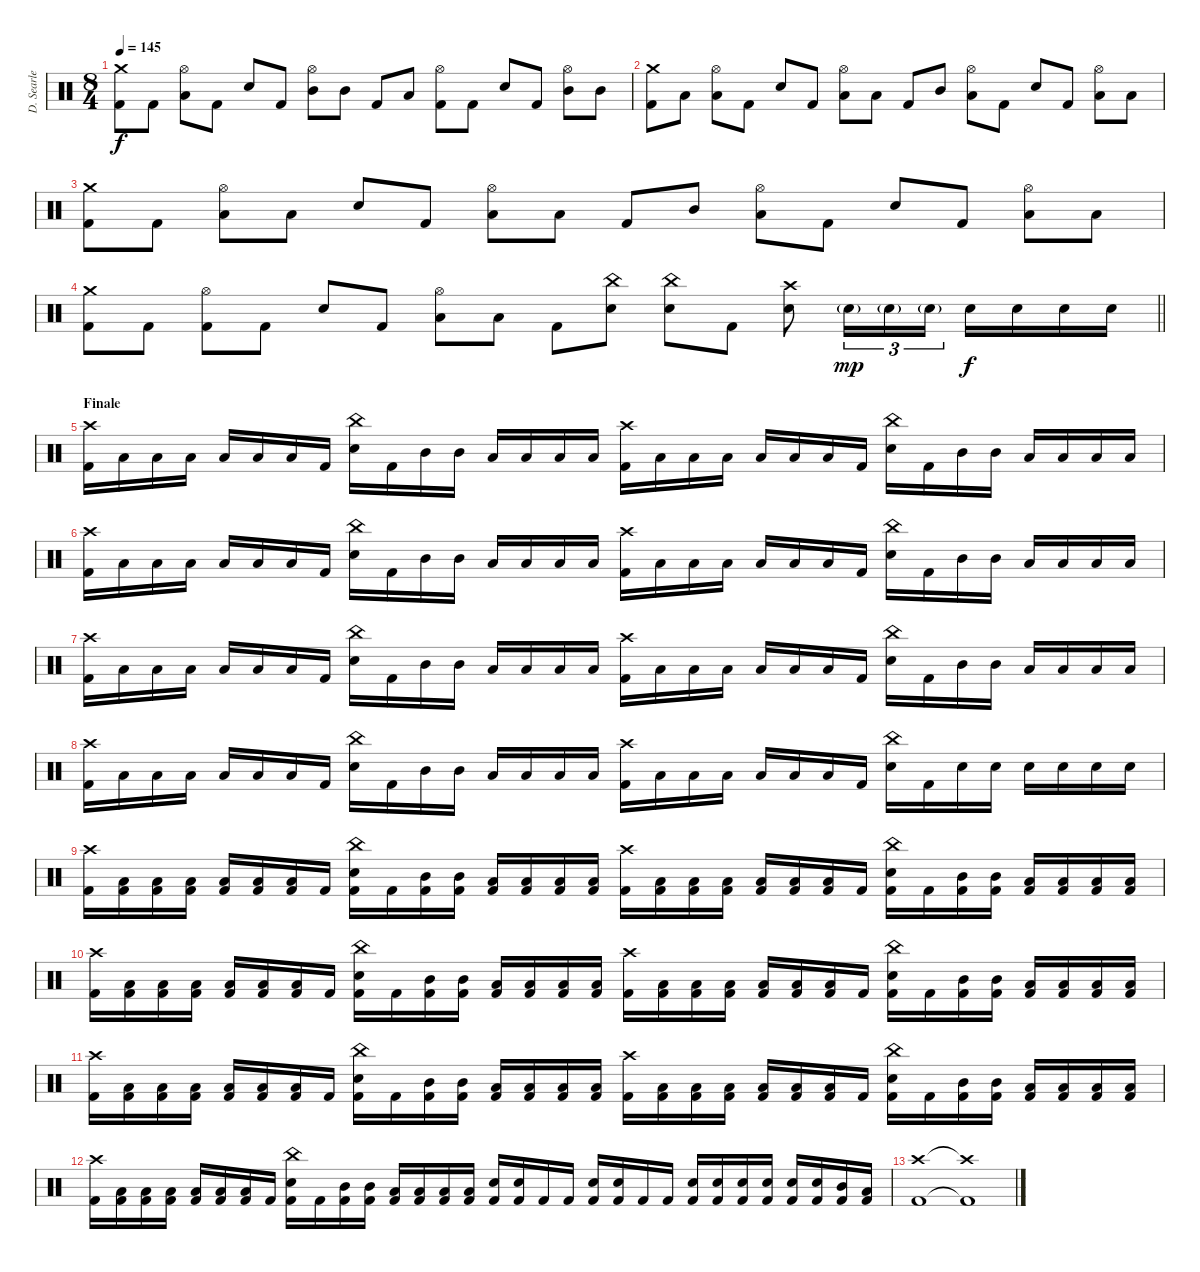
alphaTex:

\track ("D. Searle" "D. Searle") {instrument percussion}
\staff {score}
\articulation defaults
\ts (8 4)
\tempo 145
\clef neutral
\ks c
("Crash medium (hit)" "Kick (hit) 2").8{dy f} "Kick (hit) 2".8 ("Hi-Hat (open)" "Low Tom (hit)").8 "Kick (hit) 2".8 "Electric Snare (hit)".8 "Kick (hit) 2".8 ("Hi-Hat (open)" "Mid Tom (hit)").8 "Mid Tom (hit)".8 "Kick (hit) 2".8 "Low Tom (hit)".8 ("Hi-Hat (open)" "Kick (hit) 2").8 "Kick (hit) 2".8 "Electric Snare (hit)".8 "Kick (hit) 2".8 ("Hi-Hat (open)" "Mid Tom (hit)").8 "Mid Tom (hit)".8 |
("Crash medium (hit)" "Kick (hit) 2").8 "Low Tom (hit)".8 ("Hi-Hat (open)" "Low Tom (hit)").8 "Kick (hit) 2".8 "Electric Snare (hit)".8 "Kick (hit) 2".8 ("Hi-Hat (open)" "Low Tom (hit)").8 "Low Tom (hit)".8 "Kick (hit) 2".8 "Mid Tom (hit)".8 ("Hi-Hat (open)" "Low Tom (hit)").8 "Kick (hit) 2".8 "Electric Snare (hit)".8 "Kick (hit) 2".8 ("Hi-Hat (open)" "Low Tom (hit)").8 "Low Tom (hit)".8 |
("Crash medium (hit)" "Kick (hit) 2").8 "Kick (hit) 2".8 ("Hi-Hat (open)" "Low Tom (hit)").8 "Low Tom (hit)".8 "Electric Snare (hit)".8 "Kick (hit) 2".8 ("Hi-Hat (open)" "Low Tom (hit)").8 "Low Tom (hit)".8 "Kick (hit) 2".8 "Mid Tom (hit)".8 ("Hi-Hat (open)" "Low Tom (hit)").8 "Kick (hit) 2".8 "Electric Snare (hit)".8 "Kick (hit) 2".8 ("Hi-Hat (open)" "Low Tom (hit)").8 "Low Tom (hit)".8 |
\barLineRight lightlight
("Crash medium (hit)" "Kick (hit) 2").8 "Kick (hit) 2".8 ("Hi-Hat (open)" "Kick (hit) 2").8 "Kick (hit) 2".8 "Electric Snare (hit)".8 "Kick (hit) 2".8 ("Hi-Hat (open)" "Low Tom (hit)").8 "Low Tom (hit)".8 "Kick (hit) 2".8 ("China (hit)" "Electric Snare (hit)").8 ("China (hit)" "Electric Snare (hit)").8 "Kick (hit) 2".8 ("Crash high (hit)" "Electric Snare (hit)").8 "Electric Snare (hit)"{g}.16{tu (3 2) dy mp} "Electric Snare (hit)"{g}.16{tu (3 2)} "Electric Snare (hit)"{g}.16{tu (3 2)} "Electric Snare (hit)".16{dy f} "Electric Snare (hit)".16 "Electric Snare (hit)".16 "Electric Snare (hit)".16 |
\section ("" "Finale")
("Crash high (hit)" "Kick (hit) 2").16 "Low Tom (hit)".16 "Low Tom (hit)".16 "Low Tom (hit)".16 "Low Tom (hit)".16 "Low Tom (hit)".16 "Low Tom (hit)".16 "Kick (hit) 2".16 ("China (hit)" "Electric Snare (hit)").16 "Kick (hit) 2".16 "Mid Tom (hit)".16 "Mid Tom (hit)".16 "Low Tom (hit)".16 "Low Tom (hit)".16 "Low Tom (hit)".16 "Low Tom (hit)".16 ("Crash high (hit)" "Kick (hit) 2").16 "Low Tom (hit)".16 "Low Tom (hit)".16 "Low Tom (hit)".16 "Low Tom (hit)".16 "Low Tom (hit)".16 "Low Tom (hit)".16 "Kick (hit) 2".16 ("China (hit)" "Electric Snare (hit)").16 "Kick (hit) 2".16 "Mid Tom (hit)".16 "Mid Tom (hit)".16 "Low Tom (hit)".16 "Low Tom (hit)".16 "Low Tom (hit)".16 "Low Tom (hit)".16 |
("Crash high (hit)" "Kick (hit) 2").16 "Low Tom (hit)".16 "Low Tom (hit)".16 "Low Tom (hit)".16 "Low Tom (hit)".16 "Low Tom (hit)".16 "Low Tom (hit)".16 "Kick (hit) 2".16 ("China (hit)" "Electric Snare (hit)").16 "Kick (hit) 2".16 "Mid Tom (hit)".16 "Mid Tom (hit)".16 "Low Tom (hit)".16 "Low Tom (hit)".16 "Low Tom (hit)".16 "Low Tom (hit)".16 ("Crash high (hit)" "Kick (hit) 2").16 "Low Tom (hit)".16 "Low Tom (hit)".16 "Low Tom (hit)".16 "Low Tom (hit)".16 "Low Tom (hit)".16 "Low Tom (hit)".16 "Kick (hit) 2".16 ("China (hit)" "Electric Snare (hit)").16 "Kick (hit) 2".16 "Mid Tom (hit)".16 "Mid Tom (hit)".16 "Low Tom (hit)".16 "Low Tom (hit)".16 "Low Tom (hit)".16 "Low Tom (hit)".16 |
("Crash high (hit)" "Kick (hit) 2").16 "Low Tom (hit)".16 "Low Tom (hit)".16 "Low Tom (hit)".16 "Low Tom (hit)".16 "Low Tom (hit)".16 "Low Tom (hit)".16 "Kick (hit) 2".16 ("China (hit)" "Electric Snare (hit)").16 "Kick (hit) 2".16 "Mid Tom (hit)".16 "Mid Tom (hit)".16 "Low Tom (hit)".16 "Low Tom (hit)".16 "Low Tom (hit)".16 "Low Tom (hit)".16 ("Crash high (hit)" "Kick (hit) 2").16 "Low Tom (hit)".16 "Low Tom (hit)".16 "Low Tom (hit)".16 "Low Tom (hit)".16 "Low Tom (hit)".16 "Low Tom (hit)".16 "Kick (hit) 2".16 ("China (hit)" "Electric Snare (hit)").16 "Kick (hit) 2".16 "Mid Tom (hit)".16 "Mid Tom (hit)".16 "Low Tom (hit)".16 "Low Tom (hit)".16 "Low Tom (hit)".16 "Low Tom (hit)".16 |
("Crash high (hit)" "Kick (hit) 2").16 "Low Tom (hit)".16 "Low Tom (hit)".16 "Low Tom (hit)".16 "Low Tom (hit)".16 "Low Tom (hit)".16 "Low Tom (hit)".16 "Kick (hit) 2".16 ("China (hit)" "Electric Snare (hit)").16 "Kick (hit) 2".16 "Mid Tom (hit)".16 "Mid Tom (hit)".16 "Low Tom (hit)".16 "Low Tom (hit)".16 "Low Tom (hit)".16 "Low Tom (hit)".16 ("Crash high (hit)" "Kick (hit) 2").16 "Low Tom (hit)".16 "Low Tom (hit)".16 "Low Tom (hit)".16 "Low Tom (hit)".16 "Low Tom (hit)".16 "Low Tom (hit)".16 "Kick (hit) 2".16 ("China (hit)" "Electric Snare (hit)").16 "Kick (hit) 2".16 "Electric Snare (hit)".16 "Electric Snare (hit)".16 "Electric Snare (hit)".16 "Electric Snare (hit)".16 "Electric Snare (hit)".16 "Electric Snare (hit)".16 |
("Crash high (hit)" "Kick (hit) 2").16 ("Low Tom (hit)" "Kick (hit) 2").16 ("Low Tom (hit)" "Kick (hit) 2").16 ("Low Tom (hit)" "Kick (hit) 2").16 ("Low Tom (hit)" "Kick (hit) 2").16 ("Low Tom (hit)" "Kick (hit) 2").16 ("Low Tom (hit)" "Kick (hit) 2").16 "Kick (hit) 2".16 ("China (hit)" "Electric Snare (hit)" "Kick (hit) 2").16 "Kick (hit) 2".16 ("Mid Tom (hit)" "Kick (hit) 2").16 ("Mid Tom (hit)" "Kick (hit) 2").16 ("Low Tom (hit)" "Kick (hit) 2").16 ("Low Tom (hit)" "Kick (hit) 2").16 ("Low Tom (hit)" "Kick (hit) 2").16 ("Low Tom (hit)" "Kick (hit) 2").16 ("Crash high (hit)" "Kick (hit) 2").16 ("Low Tom (hit)" "Kick (hit) 2").16 ("Low Tom (hit)" "Kick (hit) 2").16 ("Low Tom (hit)" "Kick (hit) 2").16 ("Low Tom (hit)" "Kick (hit) 2").16 ("Low Tom (hit)" "Kick (hit) 2").16 ("Low Tom (hit)" "Kick (hit) 2").16 "Kick (hit) 2".16 ("China (hit)" "Electric Snare (hit)" "Kick (hit) 2").16 "Kick (hit) 2".16 ("Mid Tom (hit)" "Kick (hit) 2").16 ("Mid Tom (hit)" "Kick (hit) 2").16 ("Low Tom (hit)" "Kick (hit) 2").16 ("Low Tom (hit)" "Kick (hit) 2").16 ("Low Tom (hit)" "Kick (hit) 2").16 ("Low Tom (hit)" "Kick (hit) 2").16 |
("Crash high (hit)" "Kick (hit) 2").16 ("Low Tom (hit)" "Kick (hit) 2").16 ("Low Tom (hit)" "Kick (hit) 2").16 ("Low Tom (hit)" "Kick (hit) 2").16 ("Low Tom (hit)" "Kick (hit) 2").16 ("Low Tom (hit)" "Kick (hit) 2").16 ("Low Tom (hit)" "Kick (hit) 2").16 "Kick (hit) 2".16 ("China (hit)" "Electric Snare (hit)" "Kick (hit) 2").16 "Kick (hit) 2".16 ("Mid Tom (hit)" "Kick (hit) 2").16 ("Mid Tom (hit)" "Kick (hit) 2").16 ("Low Tom (hit)" "Kick (hit) 2").16 ("Low Tom (hit)" "Kick (hit) 2").16 ("Low Tom (hit)" "Kick (hit) 2").16 ("Low Tom (hit)" "Kick (hit) 2").16 ("Crash high (hit)" "Kick (hit) 2").16 ("Low Tom (hit)" "Kick (hit) 2").16 ("Low Tom (hit)" "Kick (hit) 2").16 ("Low Tom (hit)" "Kick (hit) 2").16 ("Low Tom (hit)" "Kick (hit) 2").16 ("Low Tom (hit)" "Kick (hit) 2").16 ("Low Tom (hit)" "Kick (hit) 2").16 "Kick (hit) 2".16 ("China (hit)" "Electric Snare (hit)" "Kick (hit) 2").16 "Kick (hit) 2".16 ("Mid Tom (hit)" "Kick (hit) 2").16 ("Mid Tom (hit)" "Kick (hit) 2").16 ("Low Tom (hit)" "Kick (hit) 2").16 ("Low Tom (hit)" "Kick (hit) 2").16 ("Low Tom (hit)" "Kick (hit) 2").16 ("Low Tom (hit)" "Kick (hit) 2").16 |
("Crash high (hit)" "Kick (hit) 2").16 ("Low Tom (hit)" "Kick (hit) 2").16 ("Low Tom (hit)" "Kick (hit) 2").16 ("Low Tom (hit)" "Kick (hit) 2").16 ("Low Tom (hit)" "Kick (hit) 2").16 ("Low Tom (hit)" "Kick (hit) 2").16 ("Low Tom (hit)" "Kick (hit) 2").16 "Kick (hit) 2".16 ("China (hit)" "Electric Snare (hit)" "Kick (hit) 2").16 "Kick (hit) 2".16 ("Mid Tom (hit)" "Kick (hit) 2").16 ("Mid Tom (hit)" "Kick (hit) 2").16 ("Low Tom (hit)" "Kick (hit) 2").16 ("Low Tom (hit)" "Kick (hit) 2").16 ("Low Tom (hit)" "Kick (hit) 2").16 ("Low Tom (hit)" "Kick (hit) 2").16 ("Crash high (hit)" "Kick (hit) 2").16 ("Low Tom (hit)" "Kick (hit) 2").16 ("Low Tom (hit)" "Kick (hit) 2").16 ("Low Tom (hit)" "Kick (hit) 2").16 ("Low Tom (hit)" "Kick (hit) 2").16 ("Low Tom (hit)" "Kick (hit) 2").16 ("Low Tom (hit)" "Kick (hit) 2").16 "Kick (hit) 2".16 ("China (hit)" "Electric Snare (hit)" "Kick (hit) 2").16 "Kick (hit) 2".16 ("Mid Tom (hit)" "Kick (hit) 2").16 ("Mid Tom (hit)" "Kick (hit) 2").16 ("Low Tom (hit)" "Kick (hit) 2").16 ("Low Tom (hit)" "Kick (hit) 2").16 ("Low Tom (hit)" "Kick (hit) 2").16 ("Low Tom (hit)" "Kick (hit) 2").16 |
("Crash high (hit)" "Kick (hit) 2").16 ("Low Tom (hit)" "Kick (hit) 2").16 ("Low Tom (hit)" "Kick (hit) 2").16 ("Low Tom (hit)" "Kick (hit) 2").16 ("Low Tom (hit)" "Kick (hit) 2").16 ("Low Tom (hit)" "Kick (hit) 2").16 ("Low Tom (hit)" "Kick (hit) 2").16 "Kick (hit) 2".16 ("China (hit)" "Electric Snare (hit)" "Kick (hit) 2").16 "Kick (hit) 2".16 ("Mid Tom (hit)" "Kick (hit) 2").16 ("Mid Tom (hit)" "Kick (hit) 2").16 ("Low Tom (hit)" "Kick (hit) 2").16 ("Low Tom (hit)" "Kick (hit) 2").16 ("Low Tom (hit)" "Kick (hit) 2").16 ("Low Tom (hit)" "Kick (hit) 2").16 ("Electric Snare (hit)" "Kick (hit) 2").16 ("Electric Snare (hit)" "Kick (hit) 2").16 "Kick (hit) 2".16 "Kick (hit) 2".16 ("Electric Snare (hit)" "Kick (hit) 2").16 ("Electric Snare (hit)" "Kick (hit) 2").16 "Kick (hit) 2".16 "Kick (hit) 2".16 ("Electric Snare (hit)" "Kick (hit) 2").16 ("Electric Snare (hit)" "Kick (hit) 2").16 ("Electric Snare (hit)" "Kick (hit) 2").16 ("Electric Snare (hit)" "Kick (hit) 2").16 ("Electric Snare (hit)" "Kick (hit) 2").16 ("Electric Snare (hit)" "Kick (hit) 2").16 ("Mid Tom (hit)" "Kick (hit) 2").16 ("Low Tom (hit)" "Kick (hit) 2").16 |
("Crash high (hit)" "Kick (hit) 2").1 ("Crash high (hit)"{t} "Kick (hit) 2"{t}).1
